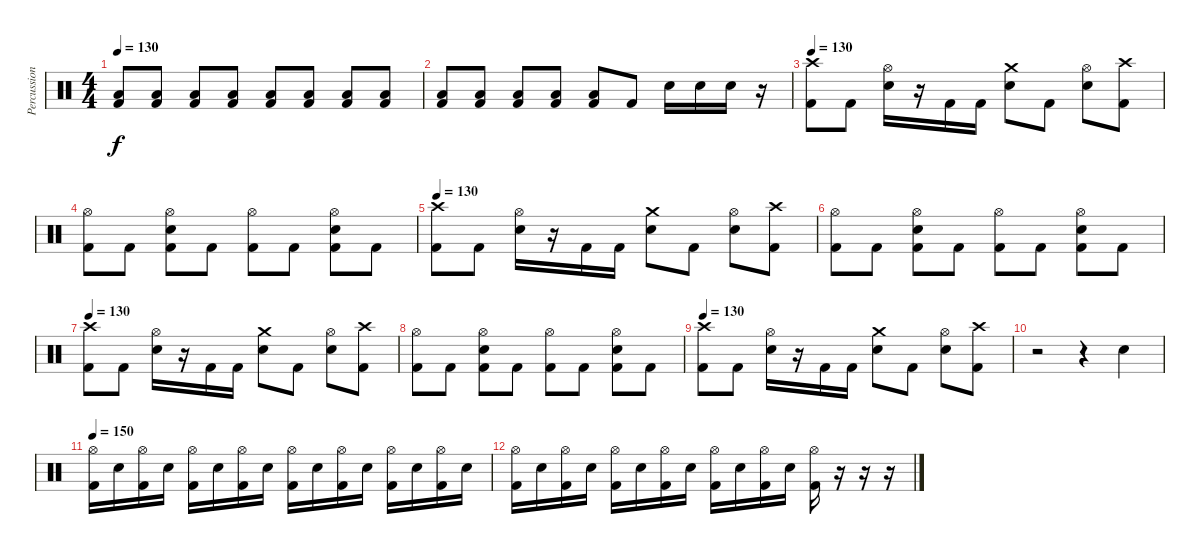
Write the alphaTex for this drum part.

\track ("Percussions" "Percussion") {instrument percussion}
\staff {score}
\articulation defaults
\ts (4 4)
\tempo 130
\clef neutral
\ks c
("Kick (hit) 2" "Low Tom (hit)").8{dy f volume 13} ("Kick (hit) 2" "Low Tom (hit)").8 ("Kick (hit) 2" "Low Tom (hit)").8 ("Kick (hit) 2" "Low Tom (hit)").8 ("Kick (hit) 2" "Low Tom (hit)").8 ("Kick (hit) 2" "Low Tom (hit)").8 ("Kick (hit) 2" "Low Tom (hit)").8 ("Kick (hit) 2" "Low Tom (hit)").8 |
("Kick (hit) 2" "Low Tom (hit)").8 ("Kick (hit) 2" "Low Tom (hit)").8 ("Kick (hit) 2" "Low Tom (hit)").8 ("Kick (hit) 2" "Low Tom (hit)").8 ("Kick (hit) 2" "Low Tom (hit)").8 "Kick (hit) 2".8 "Electric Snare (hit)".16 "Electric Snare (hit)".16 "Electric Snare (hit)".16 r.16 |
\tempo 130
("Kick (hit) 2" "Crash high (hit)").8 "Kick (hit) 2".8 ("Electric Snare (hit)" "Hi-Hat (open)").16 r.16 "Kick (hit) 2".16 "Kick (hit) 2".16 ("Electric Snare (hit)" "Crash medium (hit)").8 "Kick (hit) 2".8 ("Electric Snare (hit)" "Hi-Hat (open)").8 ("Kick (hit) 2" "Crash high (hit)").8 |
("Kick (hit) 2" "Hi-Hat (open)").8 "Kick (hit) 2".8 ("Kick (hit) 2" "Electric Snare (hit)" "Hi-Hat (open)").8 "Kick (hit) 2".8 ("Kick (hit) 2" "Hi-Hat (open)").8 "Kick (hit) 2".8 ("Kick (hit) 2" "Electric Snare (hit)" "Hi-Hat (open)").8 "Kick (hit) 2".8 |
\tempo 130
("Kick (hit) 2" "Crash high (hit)").8 "Kick (hit) 2".8 ("Electric Snare (hit)" "Hi-Hat (open)").16 r.16 "Kick (hit) 2".16 "Kick (hit) 2".16 ("Electric Snare (hit)" "Crash medium (hit)").8 "Kick (hit) 2".8 ("Electric Snare (hit)" "Hi-Hat (open)").8 ("Kick (hit) 2" "Crash high (hit)").8 |
("Kick (hit) 2" "Hi-Hat (open)").8 "Kick (hit) 2".8 ("Kick (hit) 2" "Electric Snare (hit)" "Hi-Hat (open)").8 "Kick (hit) 2".8 ("Kick (hit) 2" "Hi-Hat (open)").8 "Kick (hit) 2".8 ("Kick (hit) 2" "Electric Snare (hit)" "Hi-Hat (open)").8 "Kick (hit) 2".8 |
\tempo 130
("Kick (hit) 2" "Crash high (hit)").8 "Kick (hit) 2".8 ("Electric Snare (hit)" "Hi-Hat (open)").16 r.16 "Kick (hit) 2".16 "Kick (hit) 2".16 ("Electric Snare (hit)" "Crash medium (hit)").8 "Kick (hit) 2".8 ("Electric Snare (hit)" "Hi-Hat (open)").8 ("Kick (hit) 2" "Crash high (hit)").8 |
("Kick (hit) 2" "Hi-Hat (open)").8 "Kick (hit) 2".8 ("Kick (hit) 2" "Electric Snare (hit)" "Hi-Hat (open)").8 "Kick (hit) 2".8 ("Kick (hit) 2" "Hi-Hat (open)").8 "Kick (hit) 2".8 ("Kick (hit) 2" "Electric Snare (hit)" "Hi-Hat (open)").8 "Kick (hit) 2".8 |
\tempo 130
("Kick (hit) 2" "Crash high (hit)").8 "Kick (hit) 2".8 ("Electric Snare (hit)" "Hi-Hat (open)").16 r.16 "Kick (hit) 2".16 "Kick (hit) 2".16 ("Electric Snare (hit)" "Crash medium (hit)").8 "Kick (hit) 2".8 ("Electric Snare (hit)" "Hi-Hat (open)").8 ("Kick (hit) 2" "Crash high (hit)").8 |
r.2 r.4 "Electric Snare (hit)".4 |
\tempo 150
("Kick (hit) 2" "Hi-Hat (open)").16 "Electric Snare (hit)".16 ("Kick (hit) 2" "Hi-Hat (open)").16 "Electric Snare (hit)".16 ("Kick (hit) 2" "Hi-Hat (open)").16 "Electric Snare (hit)".16 ("Kick (hit) 2" "Hi-Hat (open)").16 "Electric Snare (hit)".16 ("Kick (hit) 2" "Hi-Hat (open)").16 "Electric Snare (hit)".16 ("Kick (hit) 2" "Hi-Hat (open)").16 "Electric Snare (hit)".16 ("Kick (hit) 2" "Hi-Hat (open)").16 "Electric Snare (hit)".16 ("Kick (hit) 2" "Hi-Hat (open)").16 "Electric Snare (hit)".16 |
("Kick (hit) 2" "Hi-Hat (open)").16 "Electric Snare (hit)".16 ("Kick (hit) 2" "Hi-Hat (open)").16 "Electric Snare (hit)".16 ("Kick (hit) 2" "Hi-Hat (open)").16 "Electric Snare (hit)".16 ("Kick (hit) 2" "Hi-Hat (open)").16 "Electric Snare (hit)".16 ("Kick (hit) 2" "Hi-Hat (open)").16 "Electric Snare (hit)".16 ("Kick (hit) 2" "Hi-Hat (open)").16 "Electric Snare (hit)".16 ("Kick (hit) 2" "Hi-Hat (open)").16 r.16 r.16 r.16
